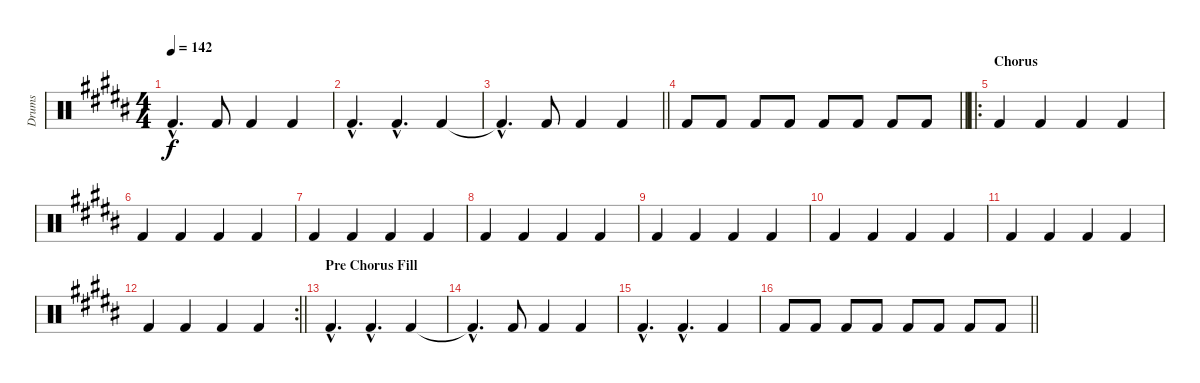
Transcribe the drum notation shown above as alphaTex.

\track ("Drums" "Drums") {instrument percussion}
\staff {score}
\articulation defaults
\ts (4 4)
\tempo 142
\clef neutral
\ks b "Kick (hit) 2"{hac t}.4{d dy f} "Kick (hit) 2".8 "Kick (hit) 2".4 "Kick (hit) 2".4
|
"Kick (hit) 2"{hac}.4{d} "Kick (hit) 2"{hac}.4{d} "Kick (hit) 2".4 |
\barLineRight lightlight "Kick (hit) 2"{hac t}.4{d} "Kick (hit) 2".8 "Kick (hit) 2".4 "Kick (hit) 2".4
|
\barLineRight lightlight "Kick (hit) 2".8 "Kick (hit) 2".8 "Kick (hit) 2".8 "Kick (hit) 2".8 "Kick (hit) 2".8 "Kick (hit) 2".8 "Kick (hit) 2".8 "Kick (hit) 2".8
|
\ro
\section ("" "Chorus")
"Kick (hit) 2".4 "Kick (hit) 2".4 "Kick (hit) 2".4 "Kick (hit) 2".4 |
"Kick (hit) 2".4 "Kick (hit) 2".4 "Kick (hit) 2".4 "Kick (hit) 2".4 |
"Kick (hit) 2".4 "Kick (hit) 2".4 "Kick (hit) 2".4 "Kick (hit) 2".4 |
"Kick (hit) 2".4 "Kick (hit) 2".4 "Kick (hit) 2".4 "Kick (hit) 2".4 |
"Kick (hit) 2".4 "Kick (hit) 2".4 "Kick (hit) 2".4 "Kick (hit) 2".4 |
"Kick (hit) 2".4 "Kick (hit) 2".4 "Kick (hit) 2".4 "Kick (hit) 2".4 |
"Kick (hit) 2".4 "Kick (hit) 2".4 "Kick (hit) 2".4 "Kick (hit) 2".4 |
\rc 2
\barLineRight lightlight "Kick (hit) 2".4 "Kick (hit) 2".4 "Kick (hit) 2".4 "Kick (hit) 2".4
|
\section ("" "Pre Chorus Fill")
"Kick (hit) 2"{hac}.4{d} "Kick (hit) 2"{hac}.4{d} "Kick (hit) 2".4 |
"Kick (hit) 2"{hac t}.4{d} "Kick (hit) 2".8 "Kick (hit) 2".4 "Kick (hit) 2".4 |
"Kick (hit) 2"{hac}.4{d} "Kick (hit) 2"{hac}.4{d} "Kick (hit) 2".4 |
\barLineRight lightlight "Kick (hit) 2".8 "Kick (hit) 2".8 "Kick (hit) 2".8 "Kick (hit) 2".8 "Kick (hit) 2".8 "Kick (hit) 2".8 "Kick (hit) 2".8 "Kick (hit) 2".8
